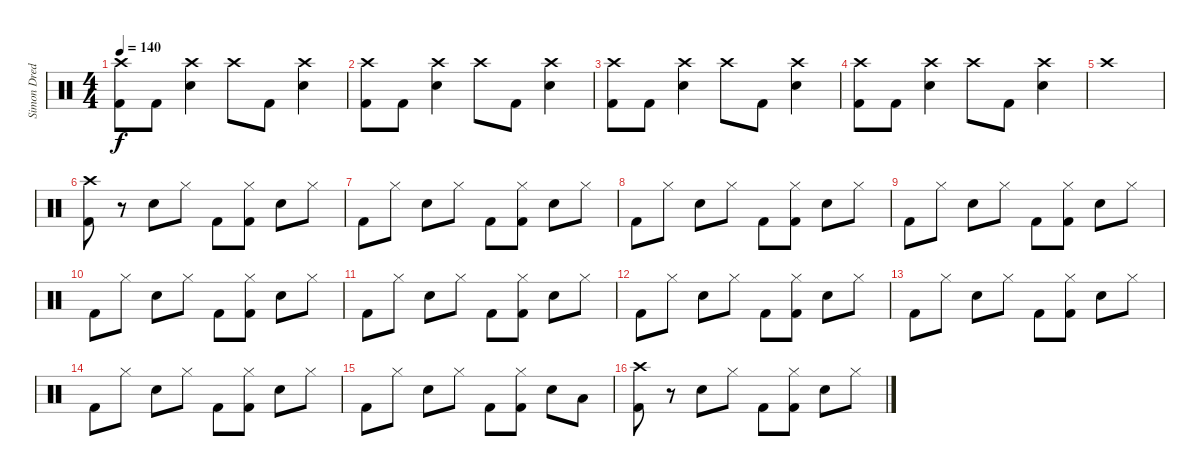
\track ("Simon Dredo" "Simon Dred") {instrument percussion}
\staff {score}
\articulation defaults
\ts (4 4)
\tempo 140
\clef neutral
\ks c
("Crash high (hit)" "Kick (hit) 2").8{dy f} "Kick (hit) 2".8 ("Crash high (hit)" "Electric Snare (hit)").4 "Crash high (hit)".8 "Kick (hit) 2".8 ("Crash high (hit)" "Electric Snare (hit)").4 |
("Crash high (hit)" "Kick (hit) 2").8 "Kick (hit) 2".8 ("Crash high (hit)" "Electric Snare (hit)").4 "Crash high (hit)".8 "Kick (hit) 2".8 ("Crash high (hit)" "Electric Snare (hit)").4 |
("Crash high (hit)" "Kick (hit) 2").8 "Kick (hit) 2".8 ("Crash high (hit)" "Electric Snare (hit)").4 "Crash high (hit)".8 "Kick (hit) 2".8 ("Crash high (hit)" "Electric Snare (hit)").4 |
("Crash high (hit)" "Kick (hit) 2").8 "Kick (hit) 2".8 ("Crash high (hit)" "Electric Snare (hit)").4 "Crash high (hit)".8 "Kick (hit) 2".8 ("Crash high (hit)" "Electric Snare (hit)").4 |
"Crash high (hit)".1 |
("Crash high (hit)" "Kick (hit) 2").8 r.8 "Snare (hit) 2".8 "Hi-Hat (closed)".8 "Kick (hit) 2".8 ("Hi-Hat (closed)" "Kick (hit) 2").8 "Snare (hit) 2".8 "Hi-Hat (closed)".8 |
"Kick (hit) 2".8 "Hi-Hat (closed)".8 "Snare (hit) 2".8 "Hi-Hat (closed)".8 "Kick (hit) 2".8 ("Hi-Hat (closed)" "Kick (hit) 2").8 "Snare (hit) 2".8 "Hi-Hat (closed)".8 |
"Kick (hit) 2".8 "Hi-Hat (closed)".8 "Snare (hit) 2".8 "Hi-Hat (closed)".8 "Kick (hit) 2".8 ("Hi-Hat (closed)" "Kick (hit) 2").8 "Snare (hit) 2".8 "Hi-Hat (closed)".8 |
"Kick (hit) 2".8 "Hi-Hat (closed)".8 "Snare (hit) 2".8 "Hi-Hat (closed)".8 "Kick (hit) 2".8 ("Hi-Hat (closed)" "Kick (hit) 2").8 "Snare (hit) 2".8 "Hi-Hat (closed)".8 |
"Kick (hit) 2".8 "Hi-Hat (closed)".8 "Snare (hit) 2".8 "Hi-Hat (closed)".8 "Kick (hit) 2".8 ("Hi-Hat (closed)" "Kick (hit) 2").8 "Snare (hit) 2".8 "Hi-Hat (closed)".8 |
"Kick (hit) 2".8 "Hi-Hat (closed)".8 "Snare (hit) 2".8 "Hi-Hat (closed)".8 "Kick (hit) 2".8 ("Hi-Hat (closed)" "Kick (hit) 2").8 "Snare (hit) 2".8 "Hi-Hat (closed)".8 |
"Kick (hit) 2".8 "Hi-Hat (closed)".8 "Snare (hit) 2".8 "Hi-Hat (closed)".8 "Kick (hit) 2".8 ("Hi-Hat (closed)" "Kick (hit) 2").8 "Snare (hit) 2".8 "Hi-Hat (closed)".8 |
"Kick (hit) 2".8 "Hi-Hat (closed)".8 "Snare (hit) 2".8 "Hi-Hat (closed)".8 "Kick (hit) 2".8 ("Hi-Hat (closed)" "Kick (hit) 2").8 "Snare (hit) 2".8 "Hi-Hat (closed)".8 |
"Kick (hit) 2".8 "Hi-Hat (closed)".8 "Snare (hit) 2".8 "Hi-Hat (closed)".8 "Kick (hit) 2".8 ("Hi-Hat (closed)" "Kick (hit) 2").8 "Snare (hit) 2".8 "Hi-Hat (closed)".8 |
"Kick (hit) 2".8 "Hi-Hat (closed)".8 "Snare (hit) 2".8 "Hi-Hat (closed)".8 "Kick (hit) 2".8 ("Hi-Hat (closed)" "Kick (hit) 2").8 "Electric Snare (hit)".8 "Low Tom (hit)".8 |
("Crash high (hit)" "Kick (hit) 2").8 r.8 "Snare (hit) 2".8 "Hi-Hat (closed)".8 "Kick (hit) 2".8 ("Hi-Hat (closed)" "Kick (hit) 2").8 "Snare (hit) 2".8 "Hi-Hat (closed)".8
